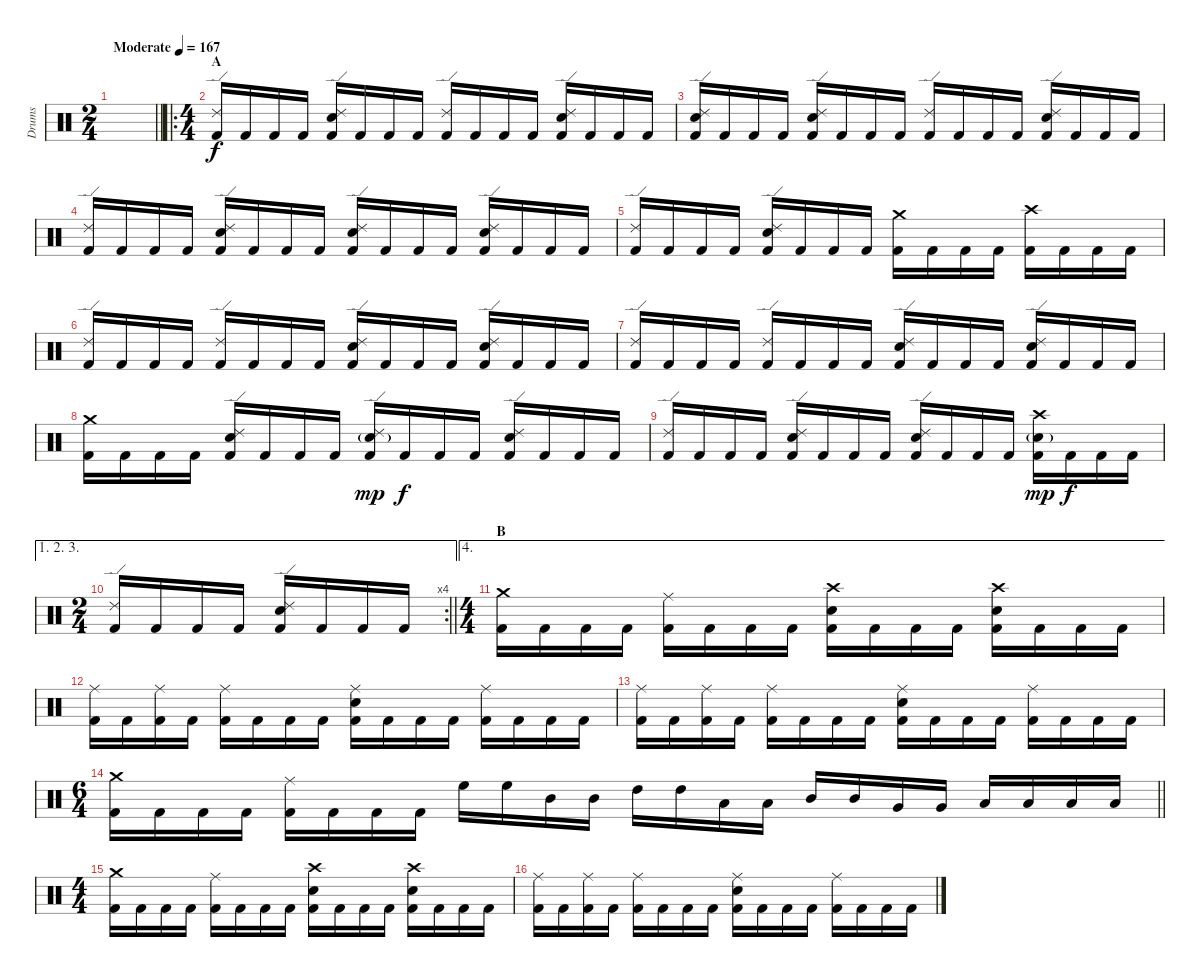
\track ("Drums" "Drums") {instrument percussion}
\staff {score}
\articulation defaults
\ts (2 4)
\tempo (167 "Moderate")
\clef neutral
\barLineRight lightlight
\ks c
|
\ro
\ts (4 4)
\section ("" "A")
("Ride (edge) 2" "Kick (hit) 2").16 "Kick (hit) 2".16 "Kick (hit) 2".16 "Kick (hit) 2".16 ("Ride (edge) 2" "Electric Snare (hit)" "Kick (hit) 2").16 "Kick (hit) 2".16 "Kick (hit) 2".16 "Kick (hit) 2".16 ("Ride (edge) 2" "Kick (hit) 2").16 "Kick (hit) 2".16 "Kick (hit) 2".16 "Kick (hit) 2".16 ("Ride (edge) 2" "Electric Snare (hit)" "Kick (hit) 2").16 "Kick (hit) 2".16 "Kick (hit) 2".16 "Kick (hit) 2".16 |
("Ride (edge) 2" "Electric Snare (hit)" "Kick (hit) 2").16 "Kick (hit) 2".16 "Kick (hit) 2".16 "Kick (hit) 2".16 ("Ride (edge) 2" "Electric Snare (hit)" "Kick (hit) 2").16 "Kick (hit) 2".16 "Kick (hit) 2".16 "Kick (hit) 2".16 ("Ride (edge) 2" "Kick (hit) 2").16 "Kick (hit) 2".16 "Kick (hit) 2".16 "Kick (hit) 2".16 ("Ride (edge) 2" "Electric Snare (hit)" "Kick (hit) 2").16 "Kick (hit) 2".16 "Kick (hit) 2".16 "Kick (hit) 2".16 |
("Ride (edge) 2" "Kick (hit) 2").16 "Kick (hit) 2".16 "Kick (hit) 2".16 "Kick (hit) 2".16 ("Ride (edge) 2" "Electric Snare (hit)" "Kick (hit) 2").16 "Kick (hit) 2".16 "Kick (hit) 2".16 "Kick (hit) 2".16 ("Ride (edge) 2" "Electric Snare (hit)" "Kick (hit) 2").16 "Kick (hit) 2".16 "Kick (hit) 2".16 "Kick (hit) 2".16 ("Ride (edge) 2" "Electric Snare (hit)" "Kick (hit) 2").16 "Kick (hit) 2".16 "Kick (hit) 2".16 "Kick (hit) 2".16 |
("Ride (edge) 2" "Kick (hit) 2").16 "Kick (hit) 2".16 "Kick (hit) 2".16 "Kick (hit) 2".16 ("Ride (edge) 2" "Electric Snare (hit)" "Kick (hit) 2").16 "Kick (hit) 2".16 "Kick (hit) 2".16 "Kick (hit) 2".16 ("Crash medium (hit)" "Kick (hit) 2").16 "Kick (hit) 2".16 "Kick (hit) 2".16 "Kick (hit) 2".16 ("Crash high (hit)" "Kick (hit) 2").16 "Kick (hit) 2".16 "Kick (hit) 2".16 "Kick (hit) 2".16 |
("Ride (edge) 2" "Kick (hit) 2").16 "Kick (hit) 2".16 "Kick (hit) 2".16 "Kick (hit) 2".16 ("Ride (edge) 2" "Kick (hit) 2").16 "Kick (hit) 2".16 "Kick (hit) 2".16 "Kick (hit) 2".16 ("Ride (edge) 2" "Electric Snare (hit)" "Kick (hit) 2").16 "Kick (hit) 2".16 "Kick (hit) 2".16 "Kick (hit) 2".16 ("Ride (edge) 2" "Electric Snare (hit)" "Kick (hit) 2").16 "Kick (hit) 2".16 "Kick (hit) 2".16 "Kick (hit) 2".16 |
("Ride (edge) 2" "Kick (hit) 2").16 "Kick (hit) 2".16 "Kick (hit) 2".16 "Kick (hit) 2".16 ("Ride (edge) 2" "Kick (hit) 2").16 "Kick (hit) 2".16 "Kick (hit) 2".16 "Kick (hit) 2".16 ("Ride (edge) 2" "Electric Snare (hit)" "Kick (hit) 2").16 "Kick (hit) 2".16 "Kick (hit) 2".16 "Kick (hit) 2".16 ("Ride (edge) 2" "Electric Snare (hit)" "Kick (hit) 2").16 "Kick (hit) 2".16 "Kick (hit) 2".16 "Kick (hit) 2".16 |
("Crash medium (hit)" "Kick (hit) 2").16 "Kick (hit) 2".16 "Kick (hit) 2".16 "Kick (hit) 2".16 ("Ride (edge) 2" "Electric Snare (hit)" "Kick (hit) 2").16 "Kick (hit) 2".16 "Kick (hit) 2".16 "Kick (hit) 2".16 ("Ride (edge) 2" "Electric Snare (hit)"{g} "Kick (hit) 2").16{dy mp} "Kick (hit) 2".16{dy f} "Kick (hit) 2".16 "Kick (hit) 2".16 ("Ride (edge) 2" "Electric Snare (hit)" "Kick (hit) 2").16 "Kick (hit) 2".16 "Kick (hit) 2".16 "Kick (hit) 2".16 |
("Ride (edge) 2" "Kick (hit) 2").16 "Kick (hit) 2".16 "Kick (hit) 2".16 "Kick (hit) 2".16 ("Ride (edge) 2" "Electric Snare (hit)" "Kick (hit) 2").16 "Kick (hit) 2".16 "Kick (hit) 2".16 "Kick (hit) 2".16 ("Ride (edge) 2" "Electric Snare (hit)" "Kick (hit) 2").16 "Kick (hit) 2".16 "Kick (hit) 2".16 "Kick (hit) 2".16 ("Crash high (hit)" "Electric Snare (hit)"{g} "Kick (hit) 2").16{dy mp} "Kick (hit) 2".16{dy f} "Kick (hit) 2".16 "Kick (hit) 2".16 |
\ae (1 2 3)
\rc 4
\ts (2 4)
\barLineRight lightlight
("Ride (edge) 2" "Kick (hit) 2").16 "Kick (hit) 2".16 "Kick (hit) 2".16 "Kick (hit) 2".16 ("Ride (edge) 2" "Electric Snare (hit)" "Kick (hit) 2").16 "Kick (hit) 2".16 "Kick (hit) 2".16 "Kick (hit) 2".16 |
\ae 4
\ts (4 4)
\section ("" "B")
("Crash medium (hit)" "Kick (hit) 2").16 "Kick (hit) 2".16 "Kick (hit) 2".16 "Kick (hit) 2".16 ("Ride (middle)" "Kick (hit) 2").16 "Kick (hit) 2".16 "Kick (hit) 2".16 "Kick (hit) 2".16 ("Crash high (hit)" "Electric Snare (hit)" "Kick (hit) 2").16 "Kick (hit) 2".16 "Kick (hit) 2".16 "Kick (hit) 2".16 ("Crash high (hit)" "Electric Snare (hit)" "Kick (hit) 2").16 "Kick (hit) 2".16 "Kick (hit) 2".16 "Kick (hit) 2".16 |
("Ride (middle)" "Kick (hit) 2").16 "Kick (hit) 2".16 ("Ride (middle)" "Kick (hit) 2").16 "Kick (hit) 2".16 ("Ride (middle)" "Kick (hit) 2").16 "Kick (hit) 2".16 "Kick (hit) 2".16 "Kick (hit) 2".16 ("Ride (middle)" "Electric Snare (hit)" "Kick (hit) 2").16 "Kick (hit) 2".16 "Kick (hit) 2".16 "Kick (hit) 2".16 ("Ride (middle)" "Kick (hit) 2").16 "Kick (hit) 2".16 "Kick (hit) 2".16 "Kick (hit) 2".16 |
("Ride (middle)" "Kick (hit) 2").16 "Kick (hit) 2".16 ("Ride (middle)" "Kick (hit) 2").16 "Kick (hit) 2".16 ("Ride (middle)" "Kick (hit) 2").16 "Kick (hit) 2".16 "Kick (hit) 2".16 "Kick (hit) 2".16 ("Ride (middle)" "Electric Snare (hit)" "Kick (hit) 2").16 "Kick (hit) 2".16 "Kick (hit) 2".16 "Kick (hit) 2".16 ("Ride (middle)" "Kick (hit) 2").16 "Kick (hit) 2".16 "Kick (hit) 2".16 "Kick (hit) 2".16 |
\ts (6 4)
\barLineRight lightlight
("Crash medium (hit)" "Kick (hit) 2").16 "Kick (hit) 2".16 "Kick (hit) 2".16 "Kick (hit) 2".16 ("Ride (middle)" "Kick (hit) 2").16 "Kick (hit) 2".16 "Kick (hit) 2".16 "Kick (hit) 2".16 "High Floor Tom (hit)".16 "High Floor Tom (hit)".16 "Mid Tom (hit)".16 "Mid Tom (hit)".16 "High Tom (hit)".16 "High Tom (hit)".16 "Low Tom (hit)".16 "Low Tom (hit)".16 "Mid Tom (hit)".16 "Mid Tom (hit)".16 "Very Low Tom (hit)".16 "Very Low Tom (hit)".16 "Low Tom (hit)".16 "Low Tom (hit)".16 "Low Floor Tom (hit)".16 "Low Floor Tom (hit)".16 |
\ts (4 4)
\section ("" "")
("Crash medium (hit)" "Kick (hit) 2").16 "Kick (hit) 2".16 "Kick (hit) 2".16 "Kick (hit) 2".16 ("Ride (middle)" "Kick (hit) 2").16 "Kick (hit) 2".16 "Kick (hit) 2".16 "Kick (hit) 2".16 ("Crash high (hit)" "Electric Snare (hit)" "Kick (hit) 2").16 "Kick (hit) 2".16 "Kick (hit) 2".16 "Kick (hit) 2".16 ("Crash high (hit)" "Electric Snare (hit)" "Kick (hit) 2").16 "Kick (hit) 2".16 "Kick (hit) 2".16 "Kick (hit) 2".16 |
("Ride (middle)" "Kick (hit) 2").16 "Kick (hit) 2".16 ("Ride (middle)" "Kick (hit) 2").16 "Kick (hit) 2".16 ("Ride (middle)" "Kick (hit) 2").16 "Kick (hit) 2".16 "Kick (hit) 2".16 "Kick (hit) 2".16 ("Ride (middle)" "Electric Snare (hit)" "Kick (hit) 2").16 "Kick (hit) 2".16 "Kick (hit) 2".16 "Kick (hit) 2".16 ("Ride (middle)" "Kick (hit) 2").16 "Kick (hit) 2".16 "Kick (hit) 2".16 "Kick (hit) 2".16
